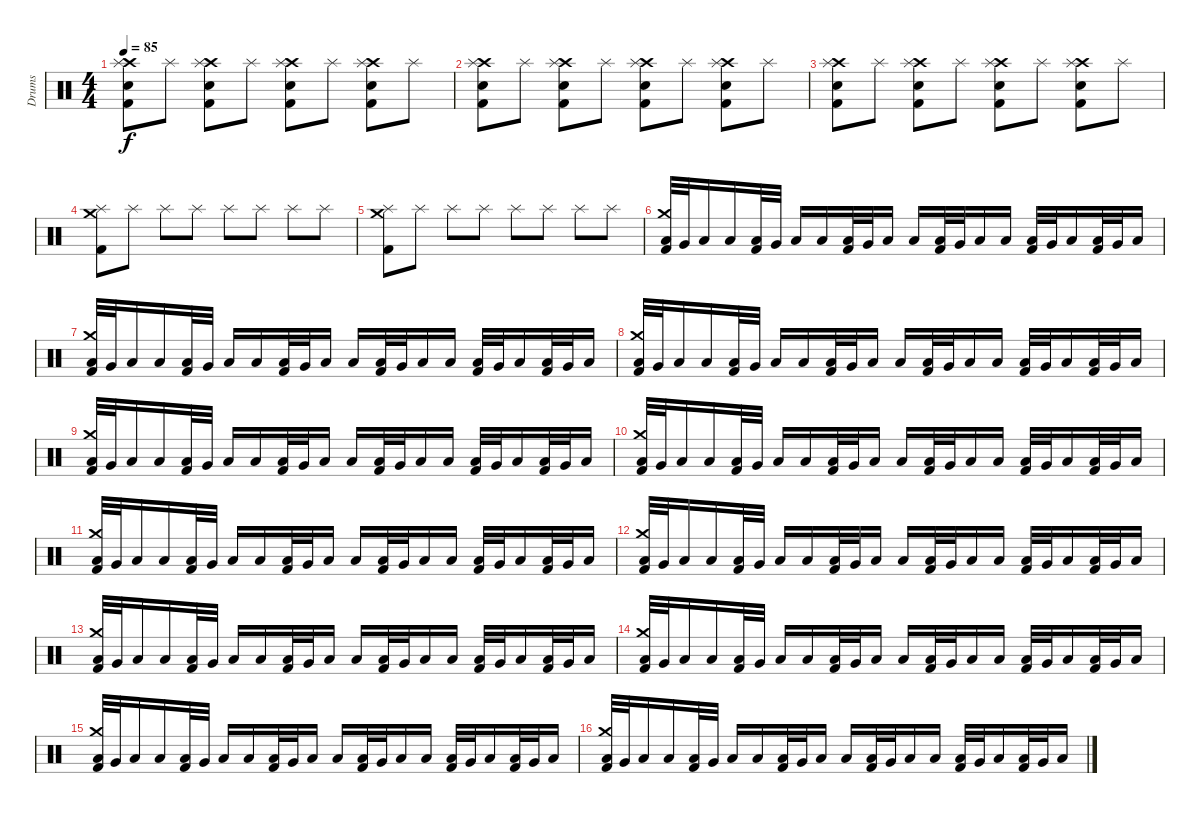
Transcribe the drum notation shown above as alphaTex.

\track ("Drums" "Drums") {instrument percussion}
\staff {score}
\articulation defaults
\ts (4 4)
\tempo 85
\clef neutral
\ks c
("Crash high (hit)" "Splash (hit)" "Snare (hit) 2" "Kick (hit) 2").8{dy f} "Splash (hit)".8 ("Crash high (hit)" "Splash (hit)" "Snare (hit) 2" "Kick (hit) 2").8 "Splash (hit)".8 ("Crash high (hit)" "Splash (hit)" "Snare (hit) 2" "Kick (hit) 2").8 "Splash (hit)".8 ("Crash high (hit)" "Splash (hit)" "Snare (hit) 2" "Kick (hit) 2").8 "Splash (hit)".8 |
("Crash high (hit)" "Splash (hit)" "Snare (hit) 2" "Kick (hit) 2").8 "Splash (hit)".8 ("Crash high (hit)" "Splash (hit)" "Snare (hit) 2" "Kick (hit) 2").8 "Splash (hit)".8 ("Crash high (hit)" "Splash (hit)" "Snare (hit) 2" "Kick (hit) 2").8 "Splash (hit)".8 ("Crash high (hit)" "Splash (hit)" "Snare (hit) 2" "Kick (hit) 2").8 "Splash (hit)".8 |
("Crash high (hit)" "Splash (hit)" "Snare (hit) 2" "Kick (hit) 2").8 "Splash (hit)".8 ("Crash high (hit)" "Splash (hit)" "Snare (hit) 2" "Kick (hit) 2").8 "Splash (hit)".8 ("Crash high (hit)" "Splash (hit)" "Snare (hit) 2" "Kick (hit) 2").8 "Splash (hit)".8 ("Crash high (hit)" "Splash (hit)" "Snare (hit) 2" "Kick (hit) 2").8 "Splash (hit)".8 |
("Crash medium (hit)" "Splash (hit)" "Kick (hit) 2").8 "Splash (hit)".8 "Splash (hit)".8 "Splash (hit)".8 "Splash (hit)".8 "Splash (hit)".8 "Splash (hit)".8 "Splash (hit)".8 |
("Crash medium (hit)" "Splash (hit)" "Kick (hit) 2").8 "Splash (hit)".8 "Splash (hit)".8 "Splash (hit)".8 "Splash (hit)".8 "Splash (hit)".8 "Splash (hit)".8 "Splash (hit)".8 |
("Crash medium (hit)" "Low Tom (hit)" "Kick (hit) 2").32 "Very Low Tom (hit)".32 "Low Floor Tom (hit)".16 "Low Floor Tom (hit)".16 ("Low Tom (hit)" "Kick (hit) 2").32 "Very Low Tom (hit)".32 "Low Floor Tom (hit)".16 "Low Floor Tom (hit)".16 ("Low Tom (hit)" "Kick (hit) 2").32 "Very Low Tom (hit)".32 "Low Floor Tom (hit)".16 "Low Floor Tom (hit)".16 ("Low Tom (hit)" "Kick (hit) 2").32 "Very Low Tom (hit)".32 "Low Floor Tom (hit)".16 "Low Floor Tom (hit)".16 ("Low Tom (hit)" "Kick (hit) 2").32 "Very Low Tom (hit)".32 "Low Floor Tom (hit)".16 ("Low Tom (hit)" "Kick (hit) 2").32 "Very Low Tom (hit)".32 "Low Floor Tom (hit)".16 |
("Crash medium (hit)" "Low Tom (hit)" "Kick (hit) 2").32 "Very Low Tom (hit)".32 "Low Floor Tom (hit)".16 "Low Floor Tom (hit)".16 ("Low Tom (hit)" "Kick (hit) 2").32 "Very Low Tom (hit)".32 "Low Floor Tom (hit)".16 "Low Floor Tom (hit)".16 ("Low Tom (hit)" "Kick (hit) 2").32 "Very Low Tom (hit)".32 "Low Floor Tom (hit)".16 "Low Floor Tom (hit)".16 ("Low Tom (hit)" "Kick (hit) 2").32 "Very Low Tom (hit)".32 "Low Floor Tom (hit)".16 "Low Floor Tom (hit)".16 ("Low Tom (hit)" "Kick (hit) 2").32 "Very Low Tom (hit)".32 "Low Floor Tom (hit)".16 ("Low Tom (hit)" "Kick (hit) 2").32 "Very Low Tom (hit)".32 "Low Floor Tom (hit)".16 |
("Crash medium (hit)" "Low Tom (hit)" "Kick (hit) 2").32 "Very Low Tom (hit)".32 "Low Floor Tom (hit)".16 "Low Floor Tom (hit)".16 ("Low Tom (hit)" "Kick (hit) 2").32 "Very Low Tom (hit)".32 "Low Floor Tom (hit)".16 "Low Floor Tom (hit)".16 ("Low Tom (hit)" "Kick (hit) 2").32 "Very Low Tom (hit)".32 "Low Floor Tom (hit)".16 "Low Floor Tom (hit)".16 ("Low Tom (hit)" "Kick (hit) 2").32 "Very Low Tom (hit)".32 "Low Floor Tom (hit)".16 "Low Floor Tom (hit)".16 ("Low Tom (hit)" "Kick (hit) 2").32 "Very Low Tom (hit)".32 "Low Floor Tom (hit)".16 ("Low Tom (hit)" "Kick (hit) 2").32 "Very Low Tom (hit)".32 "Low Floor Tom (hit)".16 |
("Crash medium (hit)" "Low Tom (hit)" "Kick (hit) 2").32 "Very Low Tom (hit)".32 "Low Floor Tom (hit)".16 "Low Floor Tom (hit)".16 ("Low Tom (hit)" "Kick (hit) 2").32 "Very Low Tom (hit)".32 "Low Floor Tom (hit)".16 "Low Floor Tom (hit)".16 ("Low Tom (hit)" "Kick (hit) 2").32 "Very Low Tom (hit)".32 "Low Floor Tom (hit)".16 "Low Floor Tom (hit)".16 ("Low Tom (hit)" "Kick (hit) 2").32 "Very Low Tom (hit)".32 "Low Floor Tom (hit)".16 "Low Floor Tom (hit)".16 ("Low Tom (hit)" "Kick (hit) 2").32 "Very Low Tom (hit)".32 "Low Floor Tom (hit)".16 ("Low Tom (hit)" "Kick (hit) 2").32 "Very Low Tom (hit)".32 "Low Floor Tom (hit)".16 |
("Crash medium (hit)" "Low Tom (hit)" "Kick (hit) 2").32 "Very Low Tom (hit)".32 "Low Floor Tom (hit)".16 "Low Floor Tom (hit)".16 ("Low Tom (hit)" "Kick (hit) 2").32 "Very Low Tom (hit)".32 "Low Floor Tom (hit)".16 "Low Floor Tom (hit)".16 ("Low Tom (hit)" "Kick (hit) 2").32 "Very Low Tom (hit)".32 "Low Floor Tom (hit)".16 "Low Floor Tom (hit)".16 ("Low Tom (hit)" "Kick (hit) 2").32 "Very Low Tom (hit)".32 "Low Floor Tom (hit)".16 "Low Floor Tom (hit)".16 ("Low Tom (hit)" "Kick (hit) 2").32 "Very Low Tom (hit)".32 "Low Floor Tom (hit)".16 ("Low Tom (hit)" "Kick (hit) 2").32 "Very Low Tom (hit)".32 "Low Floor Tom (hit)".16 |
("Crash medium (hit)" "Low Tom (hit)" "Kick (hit) 2").32 "Very Low Tom (hit)".32 "Low Floor Tom (hit)".16 "Low Floor Tom (hit)".16 ("Low Tom (hit)" "Kick (hit) 2").32 "Very Low Tom (hit)".32 "Low Floor Tom (hit)".16 "Low Floor Tom (hit)".16 ("Low Tom (hit)" "Kick (hit) 2").32 "Very Low Tom (hit)".32 "Low Floor Tom (hit)".16 "Low Floor Tom (hit)".16 ("Low Tom (hit)" "Kick (hit) 2").32 "Very Low Tom (hit)".32 "Low Floor Tom (hit)".16 "Low Floor Tom (hit)".16 ("Low Tom (hit)" "Kick (hit) 2").32 "Very Low Tom (hit)".32 "Low Floor Tom (hit)".16 ("Low Tom (hit)" "Kick (hit) 2").32 "Very Low Tom (hit)".32 "Low Floor Tom (hit)".16 |
("Crash medium (hit)" "Low Tom (hit)" "Kick (hit) 2").32 "Very Low Tom (hit)".32 "Low Floor Tom (hit)".16 "Low Floor Tom (hit)".16 ("Low Tom (hit)" "Kick (hit) 2").32 "Very Low Tom (hit)".32 "Low Floor Tom (hit)".16 "Low Floor Tom (hit)".16 ("Low Tom (hit)" "Kick (hit) 2").32 "Very Low Tom (hit)".32 "Low Floor Tom (hit)".16 "Low Floor Tom (hit)".16 ("Low Tom (hit)" "Kick (hit) 2").32 "Very Low Tom (hit)".32 "Low Floor Tom (hit)".16 "Low Floor Tom (hit)".16 ("Low Tom (hit)" "Kick (hit) 2").32 "Very Low Tom (hit)".32 "Low Floor Tom (hit)".16 ("Low Tom (hit)" "Kick (hit) 2").32 "Very Low Tom (hit)".32 "Low Floor Tom (hit)".16 |
("Crash medium (hit)" "Low Tom (hit)" "Kick (hit) 2").32 "Very Low Tom (hit)".32 "Low Floor Tom (hit)".16 "Low Floor Tom (hit)".16 ("Low Tom (hit)" "Kick (hit) 2").32 "Very Low Tom (hit)".32 "Low Floor Tom (hit)".16 "Low Floor Tom (hit)".16 ("Low Tom (hit)" "Kick (hit) 2").32 "Very Low Tom (hit)".32 "Low Floor Tom (hit)".16 "Low Floor Tom (hit)".16 ("Low Tom (hit)" "Kick (hit) 2").32 "Very Low Tom (hit)".32 "Low Floor Tom (hit)".16 "Low Floor Tom (hit)".16 ("Low Tom (hit)" "Kick (hit) 2").32 "Very Low Tom (hit)".32 "Low Floor Tom (hit)".16 ("Low Tom (hit)" "Kick (hit) 2").32 "Very Low Tom (hit)".32 "Low Floor Tom (hit)".16 |
("Crash medium (hit)" "Low Tom (hit)" "Kick (hit) 2").32 "Very Low Tom (hit)".32 "Low Floor Tom (hit)".16 "Low Floor Tom (hit)".16 ("Low Tom (hit)" "Kick (hit) 2").32 "Very Low Tom (hit)".32 "Low Floor Tom (hit)".16 "Low Floor Tom (hit)".16 ("Low Tom (hit)" "Kick (hit) 2").32 "Very Low Tom (hit)".32 "Low Floor Tom (hit)".16 "Low Floor Tom (hit)".16 ("Low Tom (hit)" "Kick (hit) 2").32 "Very Low Tom (hit)".32 "Low Floor Tom (hit)".16 "Low Floor Tom (hit)".16 ("Low Tom (hit)" "Kick (hit) 2").32 "Very Low Tom (hit)".32 "Low Floor Tom (hit)".16 ("Low Tom (hit)" "Kick (hit) 2").32 "Very Low Tom (hit)".32 "Low Floor Tom (hit)".16 |
("Crash medium (hit)" "Low Tom (hit)" "Kick (hit) 2").32 "Very Low Tom (hit)".32 "Low Floor Tom (hit)".16 "Low Floor Tom (hit)".16 ("Low Tom (hit)" "Kick (hit) 2").32 "Very Low Tom (hit)".32 "Low Floor Tom (hit)".16 "Low Floor Tom (hit)".16 ("Low Tom (hit)" "Kick (hit) 2").32 "Very Low Tom (hit)".32 "Low Floor Tom (hit)".16 "Low Floor Tom (hit)".16 ("Low Tom (hit)" "Kick (hit) 2").32 "Very Low Tom (hit)".32 "Low Floor Tom (hit)".16 "Low Floor Tom (hit)".16 ("Low Tom (hit)" "Kick (hit) 2").32 "Very Low Tom (hit)".32 "Low Floor Tom (hit)".16 ("Low Tom (hit)" "Kick (hit) 2").32 "Very Low Tom (hit)".32 "Low Floor Tom (hit)".16 |
("Crash medium (hit)" "Low Tom (hit)" "Kick (hit) 2").32 "Very Low Tom (hit)".32 "Low Floor Tom (hit)".16 "Low Floor Tom (hit)".16 ("Low Tom (hit)" "Kick (hit) 2").32 "Very Low Tom (hit)".32 "Low Floor Tom (hit)".16 "Low Floor Tom (hit)".16 ("Low Tom (hit)" "Kick (hit) 2").32 "Very Low Tom (hit)".32 "Low Floor Tom (hit)".16 "Low Floor Tom (hit)".16 ("Low Tom (hit)" "Kick (hit) 2").32 "Very Low Tom (hit)".32 "Low Floor Tom (hit)".16 "Low Floor Tom (hit)".16 ("Low Tom (hit)" "Kick (hit) 2").32 "Very Low Tom (hit)".32 "Low Floor Tom (hit)".16 ("Low Tom (hit)" "Kick (hit) 2").32 "Very Low Tom (hit)".32 "Low Floor Tom (hit)".16
